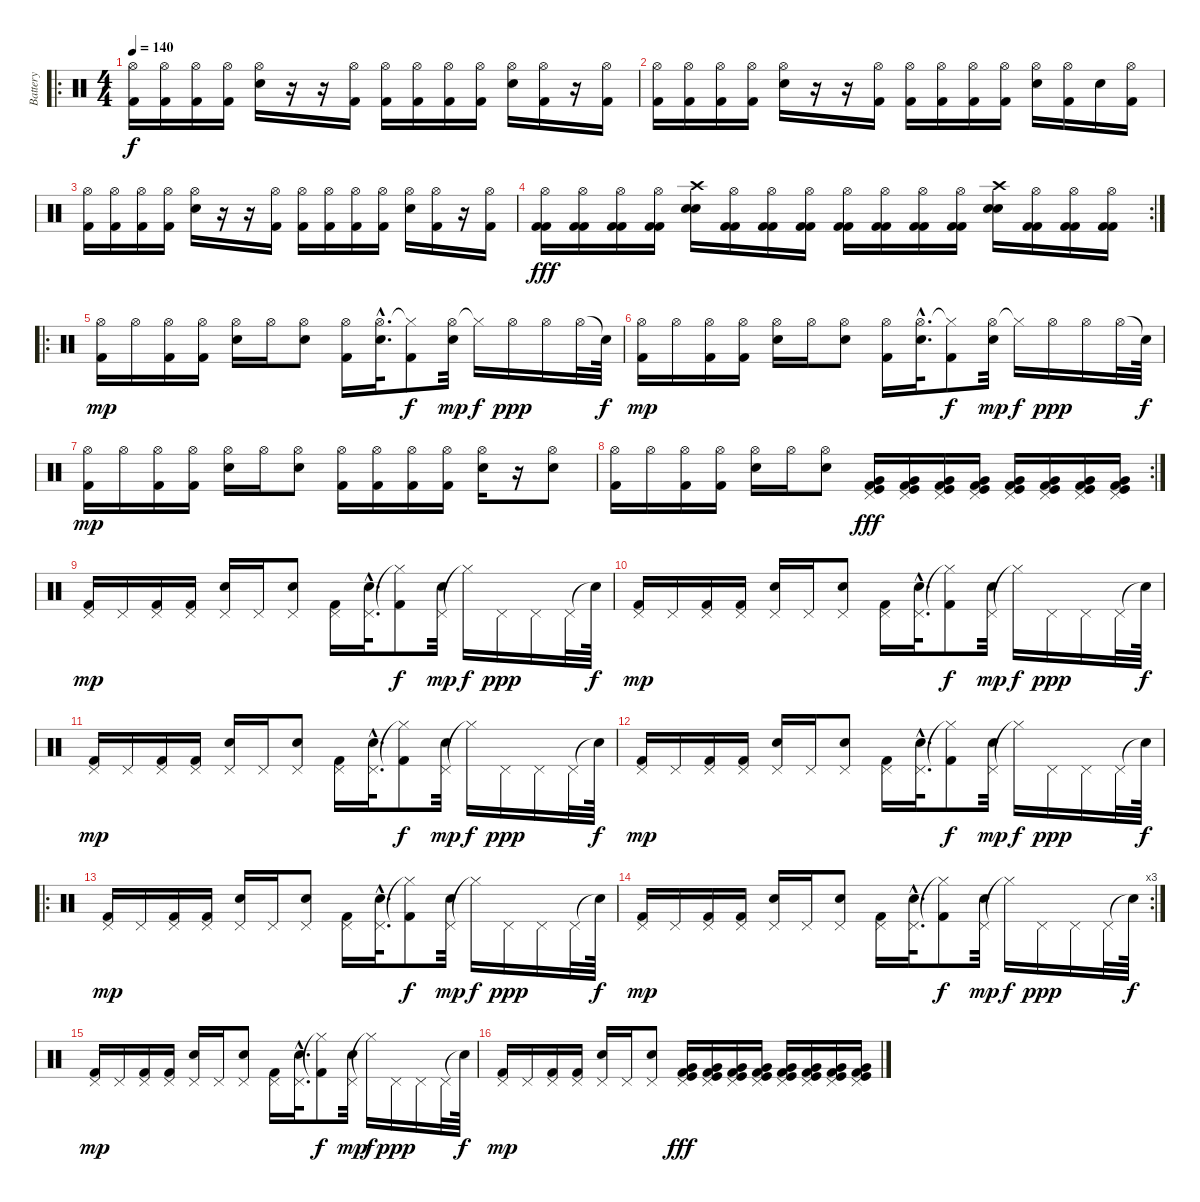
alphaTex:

\track ("Battery" "Battery") {instrument percussion}
\staff {score}
\articulation defaults
\ro
\ts (4 4)
\tempo 140
\clef neutral
\ks c
("Hi-Hat (open)" "Kick (hit) 2").16{dy f} ("Hi-Hat (open)" "Kick (hit) 2").16 ("Hi-Hat (open)" "Kick (hit) 2").16 ("Hi-Hat (open)" "Kick (hit) 2").16 ("Hi-Hat (open)" "Electric Snare (hit)").16 r.16 r.16 ("Hi-Hat (open)" "Kick (hit) 2").16 ("Hi-Hat (open)" "Kick (hit) 2").16 ("Hi-Hat (open)" "Kick (hit) 2").16 ("Hi-Hat (open)" "Kick (hit) 2").16 ("Hi-Hat (open)" "Kick (hit) 2").16 ("Hi-Hat (open)" "Electric Snare (hit)").16 ("Hi-Hat (open)" "Kick (hit) 2").16 r.16 ("Hi-Hat (open)" "Kick (hit) 2").16 |
("Hi-Hat (open)" "Kick (hit) 2").16 ("Hi-Hat (open)" "Kick (hit) 2").16 ("Hi-Hat (open)" "Kick (hit) 2").16 ("Hi-Hat (open)" "Kick (hit) 2").16 ("Hi-Hat (open)" "Electric Snare (hit)").16 r.16 r.16 ("Hi-Hat (open)" "Kick (hit) 2").16 ("Hi-Hat (open)" "Kick (hit) 2").16 ("Hi-Hat (open)" "Kick (hit) 2").16 ("Hi-Hat (open)" "Kick (hit) 2").16 ("Hi-Hat (open)" "Kick (hit) 2").16 ("Hi-Hat (open)" "Electric Snare (hit)").16 ("Hi-Hat (open)" "Kick (hit) 2").16 "Electric Snare (hit)".16 ("Hi-Hat (open)" "Kick (hit) 2").16 |
("Hi-Hat (open)" "Kick (hit) 2").16 ("Hi-Hat (open)" "Kick (hit) 2").16 ("Hi-Hat (open)" "Kick (hit) 2").16 ("Hi-Hat (open)" "Kick (hit) 2").16 ("Hi-Hat (open)" "Electric Snare (hit)").16 r.16 r.16 ("Hi-Hat (open)" "Kick (hit) 2").16 ("Hi-Hat (open)" "Kick (hit) 2").16 ("Hi-Hat (open)" "Kick (hit) 2").16 ("Hi-Hat (open)" "Kick (hit) 2").16 ("Hi-Hat (open)" "Kick (hit) 2").16 ("Hi-Hat (open)" "Electric Snare (hit)").16 ("Hi-Hat (open)" "Kick (hit) 2").16 r.16 ("Hi-Hat (open)" "Kick (hit) 2").16 |
\rc 2
("Hi-Hat (open)" "Kick (hit) 2" "Kick (hit) 2").16{dy fff} ("Hi-Hat (open)" "Kick (hit) 2" "Kick (hit) 2").16 ("Hi-Hat (open)" "Kick (hit) 2" "Kick (hit) 2").16 ("Hi-Hat (open)" "Kick (hit) 2" "Kick (hit) 2").16 ("Crash high (hit)" "Electric Snare (hit)" "Electric Snare (hit)").16 ("Hi-Hat (open)" "Kick (hit) 2" "Kick (hit) 2").16 ("Hi-Hat (open)" "Kick (hit) 2" "Kick (hit) 2").16 ("Hi-Hat (open)" "Kick (hit) 2" "Kick (hit) 2").16 ("Hi-Hat (open)" "Kick (hit) 2" "Kick (hit) 2").16 ("Hi-Hat (open)" "Kick (hit) 2" "Kick (hit) 2").16 ("Hi-Hat (open)" "Kick (hit) 2" "Kick (hit) 2").16 ("Hi-Hat (open)" "Kick (hit) 2" "Kick (hit) 2").16 ("Crash high (hit)" "Electric Snare (hit)" "Electric Snare (hit)").16 ("Hi-Hat (open)" "Kick (hit) 2" "Kick (hit) 2").16 ("Hi-Hat (open)" "Kick (hit) 2" "Kick (hit) 2").16 ("Hi-Hat (open)" "Kick (hit) 2" "Kick (hit) 2").16 |
\ro
("Hi-Hat (open)" "Kick (hit) 2").16{dy mp} "Hi-Hat (open)".16 ("Hi-Hat (open)" "Kick (hit) 2").16 ("Hi-Hat (open)" "Kick (hit) 2").16 ("Hi-Hat (open)" "Electric Snare (hit)").16 "Hi-Hat (open)".16 ("Hi-Hat (open)" "Electric Snare (hit)").8 ("Hi-Hat (open)" "Kick (hit) 2").16 ("Hi-Hat (open)"{hac} "Electric Snare (hit)"{hac}).32{d} ("Hi-Hat (closed)"{t} "Kick (hit) 2").8{dy f} ("Hi-Hat (open)" "Electric Snare (hit)").32{dy mp} "Hi-Hat (closed)"{t}.16{dy f} "Hi-Hat (open)".16{dy ppp} "Hi-Hat (open)".16 "Hi-Hat (open)".32 "Snare (hit)"{t}.64{dy f} |
("Hi-Hat (open)" "Kick (hit) 2").16{dy mp} "Hi-Hat (open)".16 ("Hi-Hat (open)" "Kick (hit) 2").16 ("Hi-Hat (open)" "Kick (hit) 2").16 ("Hi-Hat (open)" "Electric Snare (hit)").16 "Hi-Hat (open)".16 ("Hi-Hat (open)" "Electric Snare (hit)").8 ("Hi-Hat (open)" "Kick (hit) 2").16 ("Hi-Hat (open)"{hac} "Electric Snare (hit)"{hac}).32{d} ("Hi-Hat (closed)"{t} "Kick (hit) 2").8{dy f} ("Hi-Hat (open)" "Electric Snare (hit)").32{dy mp} "Hi-Hat (closed)"{t}.16{dy f} "Hi-Hat (open)".16{dy ppp} "Hi-Hat (open)".16 "Hi-Hat (open)".32 "Snare (hit)"{t}.64{dy f} |
("Hi-Hat (open)" "Kick (hit) 2").16{dy mp} "Hi-Hat (open)".16 ("Hi-Hat (open)" "Kick (hit) 2").16 ("Hi-Hat (open)" "Kick (hit) 2").16 ("Hi-Hat (open)" "Electric Snare (hit)").16 "Hi-Hat (open)".16 ("Hi-Hat (open)" "Electric Snare (hit)").8 ("Hi-Hat (open)" "Kick (hit) 2").16 ("Hi-Hat (open)" "Kick (hit) 2").16 ("Hi-Hat (open)" "Kick (hit) 2").16 ("Hi-Hat (open)" "Kick (hit) 2").16 ("Hi-Hat (open)" "Electric Snare (hit)").16 r.16 ("Hi-Hat (open)" "Electric Snare (hit)").8 |
\rc 2
("Hi-Hat (open)" "Kick (hit) 2").16 "Hi-Hat (open)".16 ("Hi-Hat (open)" "Kick (hit) 2").16 ("Hi-Hat (open)" "Kick (hit) 2").16 ("Hi-Hat (open)" "Electric Snare (hit)").16 "Hi-Hat (open)".16 ("Hi-Hat (open)" "Electric Snare (hit)").8 ("Pedal Hi-Hat (hit)" "Kick (hit) 2" "Kick (hit)" "Very Low Tom (hit)").16{dy fff} ("Pedal Hi-Hat (hit)" "Kick (hit) 2" "Kick (hit)" "Very Low Tom (hit)").16 ("Pedal Hi-Hat (hit)" "Kick (hit) 2" "Kick (hit)" "Very Low Tom (hit)").16 ("Pedal Hi-Hat (hit)" "Kick (hit) 2" "Kick (hit)" "Very Low Tom (hit)").16 ("Pedal Hi-Hat (hit)" "Kick (hit) 2" "Kick (hit)" "Very Low Tom (hit)").16 ("Pedal Hi-Hat (hit)" "Kick (hit) 2" "Kick (hit)" "Very Low Tom (hit)").16 ("Pedal Hi-Hat (hit)" "Kick (hit) 2" "Kick (hit)" "Very Low Tom (hit)").16 ("Pedal Hi-Hat (hit)" "Kick (hit) 2" "Kick (hit)" "Very Low Tom (hit)").16 |
("Pedal Hi-Hat (hit)" "Kick (hit) 2").16{dy mp} "Pedal Hi-Hat (hit)".16 ("Pedal Hi-Hat (hit)" "Kick (hit) 2").16 ("Pedal Hi-Hat (hit)" "Kick (hit) 2").16 ("Pedal Hi-Hat (hit)" "Electric Snare (hit)").16 "Pedal Hi-Hat (hit)".16 ("Pedal Hi-Hat (hit)" "Electric Snare (hit)").8 ("Pedal Hi-Hat (hit)" "Kick (hit) 2").16 ("Pedal Hi-Hat (hit)"{hac} "Electric Snare (hit)"{hac}).32{d} ("Hi-Hat (closed)"{t} "Kick (hit) 2").8{dy f} ("Pedal Hi-Hat (hit)" "Electric Snare (hit)").32{dy mp} "Hi-Hat (closed)"{t}.16{dy f} "Pedal Hi-Hat (hit)".16{dy ppp} "Pedal Hi-Hat (hit)".16 "Pedal Hi-Hat (hit)".32 "Snare (hit)"{t}.64{dy f} |
("Pedal Hi-Hat (hit)" "Kick (hit) 2").16{dy mp} "Pedal Hi-Hat (hit)".16 ("Pedal Hi-Hat (hit)" "Kick (hit) 2").16 ("Pedal Hi-Hat (hit)" "Kick (hit) 2").16 ("Pedal Hi-Hat (hit)" "Electric Snare (hit)").16 "Pedal Hi-Hat (hit)".16 ("Pedal Hi-Hat (hit)" "Electric Snare (hit)").8 ("Pedal Hi-Hat (hit)" "Kick (hit) 2").16 ("Pedal Hi-Hat (hit)"{hac} "Electric Snare (hit)"{hac}).32{d} ("Hi-Hat (closed)"{t} "Kick (hit) 2").8{dy f} ("Pedal Hi-Hat (hit)" "Electric Snare (hit)").32{dy mp} "Hi-Hat (closed)"{t}.16{dy f} "Pedal Hi-Hat (hit)".16{dy ppp} "Pedal Hi-Hat (hit)".16 "Pedal Hi-Hat (hit)".32 "Snare (hit)"{t}.64{dy f} |
("Pedal Hi-Hat (hit)" "Kick (hit) 2").16{dy mp} "Pedal Hi-Hat (hit)".16 ("Pedal Hi-Hat (hit)" "Kick (hit) 2").16 ("Pedal Hi-Hat (hit)" "Kick (hit) 2").16 ("Pedal Hi-Hat (hit)" "Electric Snare (hit)").16 "Pedal Hi-Hat (hit)".16 ("Pedal Hi-Hat (hit)" "Electric Snare (hit)").8 ("Pedal Hi-Hat (hit)" "Kick (hit) 2").16 ("Pedal Hi-Hat (hit)"{hac} "Electric Snare (hit)"{hac}).32{d} ("Hi-Hat (closed)"{t} "Kick (hit) 2").8{dy f} ("Pedal Hi-Hat (hit)" "Electric Snare (hit)").32{dy mp} "Hi-Hat (closed)"{t}.16{dy f} "Pedal Hi-Hat (hit)".16{dy ppp} "Pedal Hi-Hat (hit)".16 "Pedal Hi-Hat (hit)".32 "Snare (hit)"{t}.64{dy f} |
("Pedal Hi-Hat (hit)" "Kick (hit) 2").16{dy mp} "Pedal Hi-Hat (hit)".16 ("Pedal Hi-Hat (hit)" "Kick (hit) 2").16 ("Pedal Hi-Hat (hit)" "Kick (hit) 2").16 ("Pedal Hi-Hat (hit)" "Electric Snare (hit)").16 "Pedal Hi-Hat (hit)".16 ("Pedal Hi-Hat (hit)" "Electric Snare (hit)").8 ("Pedal Hi-Hat (hit)" "Kick (hit) 2").16 ("Pedal Hi-Hat (hit)"{hac} "Electric Snare (hit)"{hac}).32{d} ("Hi-Hat (closed)"{t} "Kick (hit) 2").8{dy f} ("Pedal Hi-Hat (hit)" "Electric Snare (hit)").32{dy mp} "Hi-Hat (closed)"{t}.16{dy f} "Pedal Hi-Hat (hit)".16{dy ppp} "Pedal Hi-Hat (hit)".16 "Pedal Hi-Hat (hit)".32 "Snare (hit)"{t}.64{dy f} |
\ro
("Pedal Hi-Hat (hit)" "Kick (hit) 2").16{dy mp} "Pedal Hi-Hat (hit)".16 ("Pedal Hi-Hat (hit)" "Kick (hit) 2").16 ("Pedal Hi-Hat (hit)" "Kick (hit) 2").16 ("Pedal Hi-Hat (hit)" "Electric Snare (hit)").16 "Pedal Hi-Hat (hit)".16 ("Pedal Hi-Hat (hit)" "Electric Snare (hit)").8 ("Pedal Hi-Hat (hit)" "Kick (hit) 2").16 ("Pedal Hi-Hat (hit)"{hac} "Electric Snare (hit)"{hac}).32{d} ("Hi-Hat (closed)"{t} "Kick (hit) 2").8{dy f} ("Pedal Hi-Hat (hit)" "Electric Snare (hit)").32{dy mp} "Hi-Hat (closed)"{t}.16{dy f} "Pedal Hi-Hat (hit)".16{dy ppp} "Pedal Hi-Hat (hit)".16 "Pedal Hi-Hat (hit)".32 "Snare (hit)"{t}.64{dy f} |
\rc 3
("Pedal Hi-Hat (hit)" "Kick (hit) 2").16{dy mp} "Pedal Hi-Hat (hit)".16 ("Pedal Hi-Hat (hit)" "Kick (hit) 2").16 ("Pedal Hi-Hat (hit)" "Kick (hit) 2").16 ("Pedal Hi-Hat (hit)" "Electric Snare (hit)").16 "Pedal Hi-Hat (hit)".16 ("Pedal Hi-Hat (hit)" "Electric Snare (hit)").8 ("Pedal Hi-Hat (hit)" "Kick (hit) 2").16 ("Pedal Hi-Hat (hit)"{hac} "Electric Snare (hit)"{hac}).32{d} ("Hi-Hat (closed)"{t} "Kick (hit) 2").8{dy f} ("Pedal Hi-Hat (hit)" "Electric Snare (hit)").32{dy mp} "Hi-Hat (closed)"{t}.16{dy f} "Pedal Hi-Hat (hit)".16{dy ppp} "Pedal Hi-Hat (hit)".16 "Pedal Hi-Hat (hit)".32 "Snare (hit)"{t}.64{dy f} |
("Pedal Hi-Hat (hit)" "Kick (hit) 2").16{dy mp} "Pedal Hi-Hat (hit)".16 ("Pedal Hi-Hat (hit)" "Kick (hit) 2").16 ("Pedal Hi-Hat (hit)" "Kick (hit) 2").16 ("Pedal Hi-Hat (hit)" "Electric Snare (hit)").16 "Pedal Hi-Hat (hit)".16 ("Pedal Hi-Hat (hit)" "Electric Snare (hit)").8 ("Pedal Hi-Hat (hit)" "Kick (hit) 2").16 ("Pedal Hi-Hat (hit)"{hac} "Electric Snare (hit)"{hac}).32{d} ("Hi-Hat (closed)"{t} "Kick (hit) 2").8{dy f} ("Pedal Hi-Hat (hit)" "Electric Snare (hit)").32{dy mp} "Hi-Hat (closed)"{t}.16{dy f} "Pedal Hi-Hat (hit)".16{dy ppp} "Pedal Hi-Hat (hit)".16 "Pedal Hi-Hat (hit)".32 "Snare (hit)"{t}.64{dy f} |
("Pedal Hi-Hat (hit)" "Kick (hit) 2").16{dy mp} "Pedal Hi-Hat (hit)".16 ("Pedal Hi-Hat (hit)" "Kick (hit) 2").16 ("Pedal Hi-Hat (hit)" "Kick (hit) 2").16 ("Pedal Hi-Hat (hit)" "Electric Snare (hit)").16 "Pedal Hi-Hat (hit)".16 ("Pedal Hi-Hat (hit)" "Electric Snare (hit)").8 ("Pedal Hi-Hat (hit)" "Kick (hit) 2" "Kick (hit)" "Very Low Tom (hit)").16{dy fff} ("Pedal Hi-Hat (hit)" "Kick (hit) 2" "Kick (hit)" "Very Low Tom (hit)").16 ("Pedal Hi-Hat (hit)" "Kick (hit) 2" "Kick (hit)" "Very Low Tom (hit)").16 ("Pedal Hi-Hat (hit)" "Kick (hit) 2" "Kick (hit)" "Very Low Tom (hit)").16 ("Pedal Hi-Hat (hit)" "Kick (hit) 2" "Kick (hit)" "Very Low Tom (hit)").16 ("Pedal Hi-Hat (hit)" "Kick (hit) 2" "Kick (hit)" "Very Low Tom (hit)").16 ("Pedal Hi-Hat (hit)" "Kick (hit) 2" "Kick (hit)" "Very Low Tom (hit)").16 ("Pedal Hi-Hat (hit)" "Kick (hit) 2" "Kick (hit)" "Very Low Tom (hit)").16
